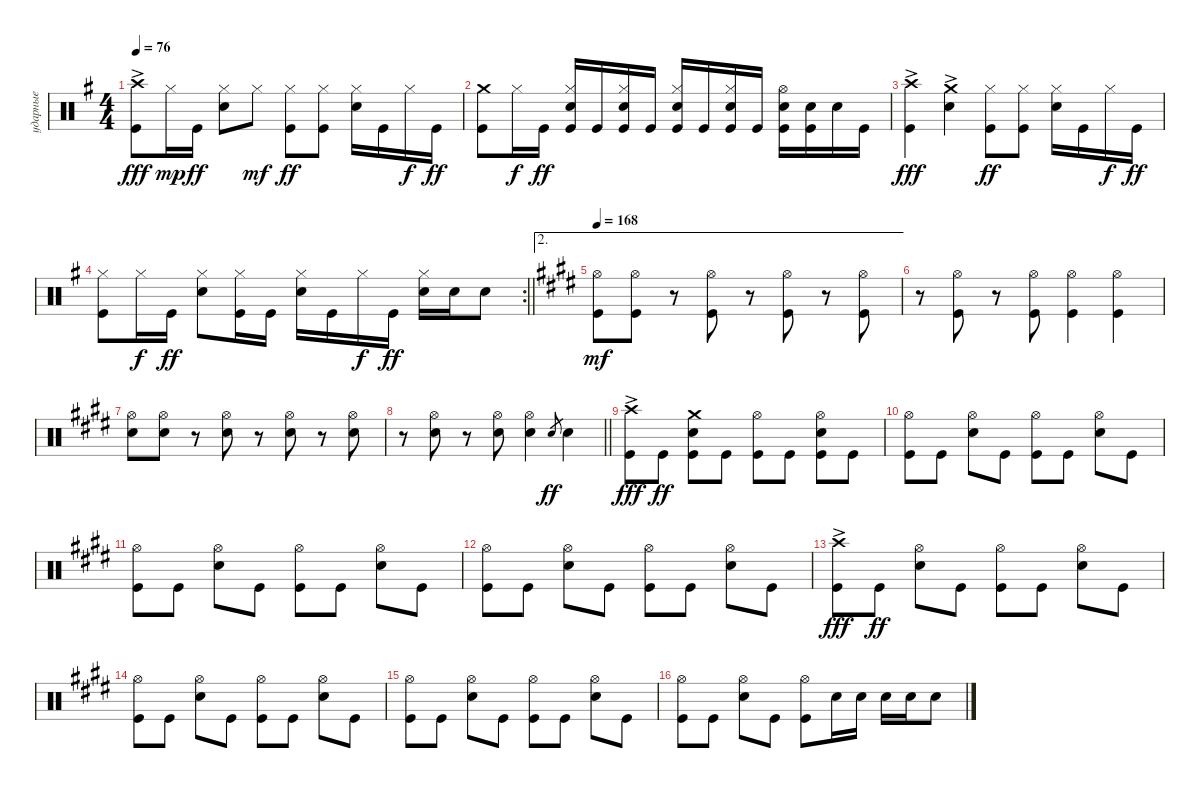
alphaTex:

\track ("ударные" "ударные") {instrument percussion}
\staff {score}
\articulation defaults
\ts (4 4)
\tempo 76
\clef neutral
\ks eminor
("Kick (hit)" "Crash high (hit)"{ac}).8{dy fff} "Hi-Hat (closed)".16{dy mp} "Kick (hit)".16{dy ff} ("Snare (hit) 2" "Hi-Hat (closed)").8 "Hi-Hat (closed)".8{dy mf} ("Kick (hit)" "Hi-Hat (closed)").8{dy ff} ("Kick (hit)" "Hi-Hat (closed)").8 ("Snare (hit) 2" "Hi-Hat (closed)").16 "Kick (hit)".16 "Hi-Hat (closed)".16{dy f} "Kick (hit)".16{dy ff} |
("Kick (hit)" "Crash medium (hit)").8 "Hi-Hat (closed)".16{dy f} "Kick (hit)".16{dy ff} ("Snare (hit) 2" "Hi-Hat (closed)" "Kick (hit)").16 "Kick (hit)".16 ("Hi-Hat (closed)" "Kick (hit)" "Snare (hit) 2").16 "Kick (hit)".16 ("Snare (hit) 2" "Hi-Hat (closed)" "Kick (hit)").16 "Kick (hit)".16 ("Hi-Hat (closed)" "Kick (hit)" "Snare (hit) 2").16 "Kick (hit)".16 ("Snare (hit) 2" "Hi-Hat (open)" "Kick (hit)").16 ("Snare (hit) 2" "Kick (hit)").16 "Snare (hit) 2".16 "Kick (hit)".16 |
("Kick (hit)" "Crash high (hit)"{ac}).4{dy fff} ("Snare (hit) 2" "Crash medium (hit)"{ac}).4 ("Kick (hit)" "Hi-Hat (closed)").8{dy ff} ("Kick (hit)" "Hi-Hat (closed)").8 ("Snare (hit) 2" "Hi-Hat (closed)").16 "Kick (hit)".16 "Hi-Hat (closed)".16{dy f} "Kick (hit)".16{dy ff} |
\rc 2
\barLineRight lightlight
("Kick (hit)" "Hi-Hat (closed)").8 "Hi-Hat (closed)".16{dy f} "Kick (hit)".16{dy ff} ("Snare (hit) 2" "Hi-Hat (closed)").8 ("Hi-Hat (closed)" "Kick (hit)").16 "Kick (hit)".16 ("Snare (hit) 2" "Hi-Hat (closed)").16 "Kick (hit)".16 "Hi-Hat (closed)".16{dy f} "Kick (hit)".16{dy ff} ("Snare (hit) 2" "Hi-Hat (closed)").16 "Snare (hit) 2".16 "Snare (hit) 2".8 |
\ae 2
\section ("" "")
\tempo 168
\ks e
("Kick (hit)" "Hi-Hat (open)").8{dy mf} ("Kick (hit)" "Hi-Hat (open)").8 r.8 ("Kick (hit)" "Hi-Hat (open)").8 r.8 ("Kick (hit)" "Hi-Hat (open)").8 r.8 ("Kick (hit)" "Hi-Hat (open)").8 |
r.8 ("Kick (hit)" "Hi-Hat (open)").8 r.8 ("Kick (hit)" "Hi-Hat (open)").8 ("Kick (hit)" "Hi-Hat (open)").4 ("Kick (hit)" "Hi-Hat (open)").4 |
("Snare (hit) 2" "Hi-Hat (open)").8 ("Snare (hit) 2" "Hi-Hat (open)").8 r.8 ("Snare (hit) 2" "Hi-Hat (open)").8 r.8 ("Snare (hit) 2" "Hi-Hat (open)").8 r.8 ("Snare (hit) 2" "Hi-Hat (open)").8 |
\barLineRight lightlight
r.8 ("Snare (hit) 2" "Hi-Hat (open)").8 r.8 ("Snare (hit) 2" "Hi-Hat (open)").8 ("Snare (hit) 2" "Hi-Hat (open)").4 "Snare (hit) 2".8{gr dy ff} "Snare (hit) 2".4 |
\section ("" "")
("Kick (hit)" "Crash high (hit)"{ac}).8{dy fff} "Kick (hit)".8{dy ff} ("Snare (hit) 2" "Kick (hit)" "Crash medium (hit)").8 "Kick (hit)".8 ("Kick (hit)" "Hi-Hat (open)").8 "Kick (hit)".8 ("Snare (hit) 2" "Kick (hit)" "Hi-Hat (open)").8 "Kick (hit)".8 |
("Kick (hit)" "Hi-Hat (open)").8 "Kick (hit)".8 ("Snare (hit) 2" "Hi-Hat (open)").8 "Kick (hit)".8 ("Kick (hit)" "Hi-Hat (open)").8 "Kick (hit)".8 ("Snare (hit) 2" "Hi-Hat (open)").8 "Kick (hit)".8 |
("Kick (hit)" "Hi-Hat (open)").8 "Kick (hit)".8 ("Snare (hit) 2" "Hi-Hat (open)").8 "Kick (hit)".8 ("Kick (hit)" "Hi-Hat (open)").8 "Kick (hit)".8 ("Snare (hit) 2" "Hi-Hat (open)").8 "Kick (hit)".8 |
("Kick (hit)" "Hi-Hat (open)").8 "Kick (hit)".8 ("Snare (hit) 2" "Hi-Hat (open)").8 "Kick (hit)".8 ("Kick (hit)" "Hi-Hat (open)").8 "Kick (hit)".8 ("Snare (hit) 2" "Hi-Hat (open)").8 "Kick (hit)".8 |
("Kick (hit)" "Crash high (hit)"{ac}).8{dy fff} "Kick (hit)".8{dy ff} ("Snare (hit) 2" "Hi-Hat (open)").8 "Kick (hit)".8 ("Kick (hit)" "Hi-Hat (open)").8 "Kick (hit)".8 ("Snare (hit) 2" "Hi-Hat (open)").8 "Kick (hit)".8 |
("Kick (hit)" "Hi-Hat (open)").8 "Kick (hit)".8 ("Snare (hit) 2" "Hi-Hat (open)").8 "Kick (hit)".8 ("Kick (hit)" "Hi-Hat (open)").8 "Kick (hit)".8 ("Snare (hit) 2" "Hi-Hat (open)").8 "Kick (hit)".8 |
("Kick (hit)" "Hi-Hat (open)").8 "Kick (hit)".8 ("Snare (hit) 2" "Hi-Hat (open)").8 "Kick (hit)".8 ("Kick (hit)" "Hi-Hat (open)").8 "Kick (hit)".8 ("Snare (hit) 2" "Hi-Hat (open)").8 "Kick (hit)".8 |
("Kick (hit)" "Hi-Hat (open)").8 "Kick (hit)".8 ("Snare (hit) 2" "Hi-Hat (open)").8 "Kick (hit)".8 ("Kick (hit)" "Hi-Hat (open)").8 "Snare (hit) 2".16 "Snare (hit) 2".16 "Snare (hit) 2".16 "Snare (hit) 2".16 "Snare (hit) 2".8
